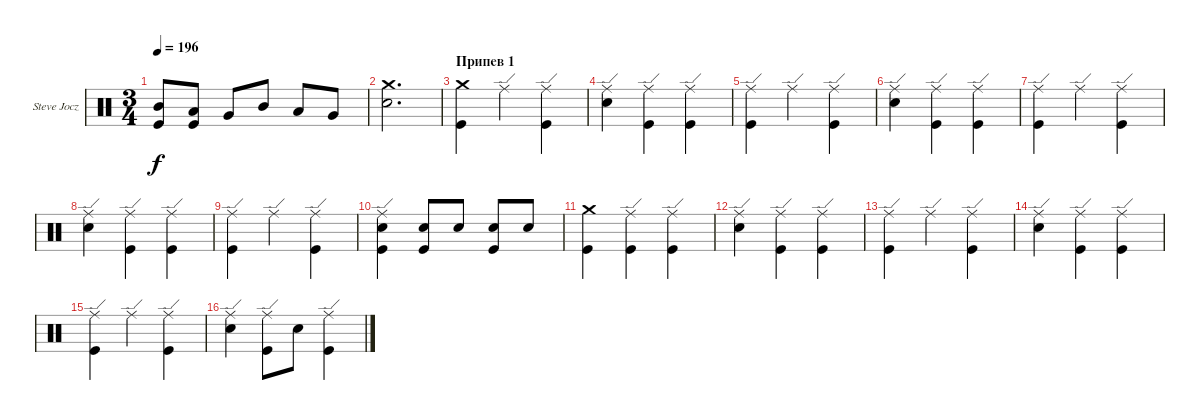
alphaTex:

\defaultSystemsLayout 4
\bracketExtendMode groupsimilarinstruments
\firstSystemTrackNameOrientation horizontal
\otherSystemsTrackNameOrientation horizontal
\track ("Steve Jocz " "Steve Jocz") {instrument percussion}
\staff {score}
\articulation defaults
\ts (3 4)
\tempo 196
\clef neutral
\scale
0.333333
\ks c
("Mid Tom (hit)" "Kick (hit)").8{dy f} ("Low Tom (hit)" "Kick (hit)").8 "Very Low Tom (hit)".8 "Mid Tom (hit)".8 "Low Tom (hit)".8 "Very Low Tom (hit)".8 |
\scale
0.333333 ("Crash medium (hit)" "Snare (hit) 2").2{d} |
\section ("" "Припев 1")
\scale
0.333333 ("Crash medium (hit)" "Kick (hit)").4 "Ride (edge)".4 ("Ride (edge)" "Kick (hit)").4 |
\scale
0.333333 ("Ride (edge)" "Snare (hit) 2").4 ("Ride (edge)" "Kick (hit)").4 ("Ride (edge)" "Kick (hit)").4 |
\scale
0.333333 ("Ride (edge)" "Kick (hit)").4 "Ride (edge)".4 ("Ride (edge)" "Kick (hit)").4 |
\scale
0.333333 ("Ride (edge)" "Snare (hit) 2").4 ("Ride (edge)" "Kick (hit)").4 ("Ride (edge)" "Kick (hit)").4 |
\scale
0.333333 ("Ride (edge)" "Kick (hit)").4 "Ride (edge)".4 ("Ride (edge)" "Kick (hit)").4 |
\scale
0.333333 ("Ride (edge)" "Snare (hit) 2").4 ("Ride (edge)" "Kick (hit)").4 ("Ride (edge)" "Kick (hit)").4 |
\scale
0.333333 ("Ride (edge)" "Kick (hit)").4 "Ride (edge)".4 ("Ride (edge)" "Kick (hit)").4 |
\scale
0.333333 ("Ride (edge)" "Snare (hit) 2" "Kick (hit)").4 ("Snare (hit) 2" "Kick (hit)").8 "Snare (hit) 2".8 ("Snare (hit) 2" "Kick (hit)").8 "Snare (hit) 2".8 |
\scale
0.333333 ("Crash medium (hit)" "Kick (hit)").4 ("Ride (edge)" "Kick (hit)").4 ("Ride (edge)" "Kick (hit)").4 |
\scale
0.333333 ("Ride (edge)" "Snare (hit) 2").4 ("Ride (edge)" "Kick (hit)").4 ("Ride (edge)" "Kick (hit)").4 |
\scale
0.333333 ("Ride (edge)" "Kick (hit)").4 "Ride (edge)".4 ("Ride (edge)" "Kick (hit)").4 |
\scale
0.333333 ("Ride (edge)" "Snare (hit) 2").4 ("Ride (edge)" "Kick (hit)").4 ("Ride (edge)" "Kick (hit)").4 |
\scale
0.333333 ("Ride (edge)" "Kick (hit)").4 "Ride (edge)".4 ("Ride (edge)" "Kick (hit)").4 |
\scale
0.333333 ("Ride (edge)" "Snare (hit) 2").4 ("Ride (edge)" "Kick (hit)").8 "Snare (hit) 2".8 ("Ride (edge)" "Kick (hit)").4
